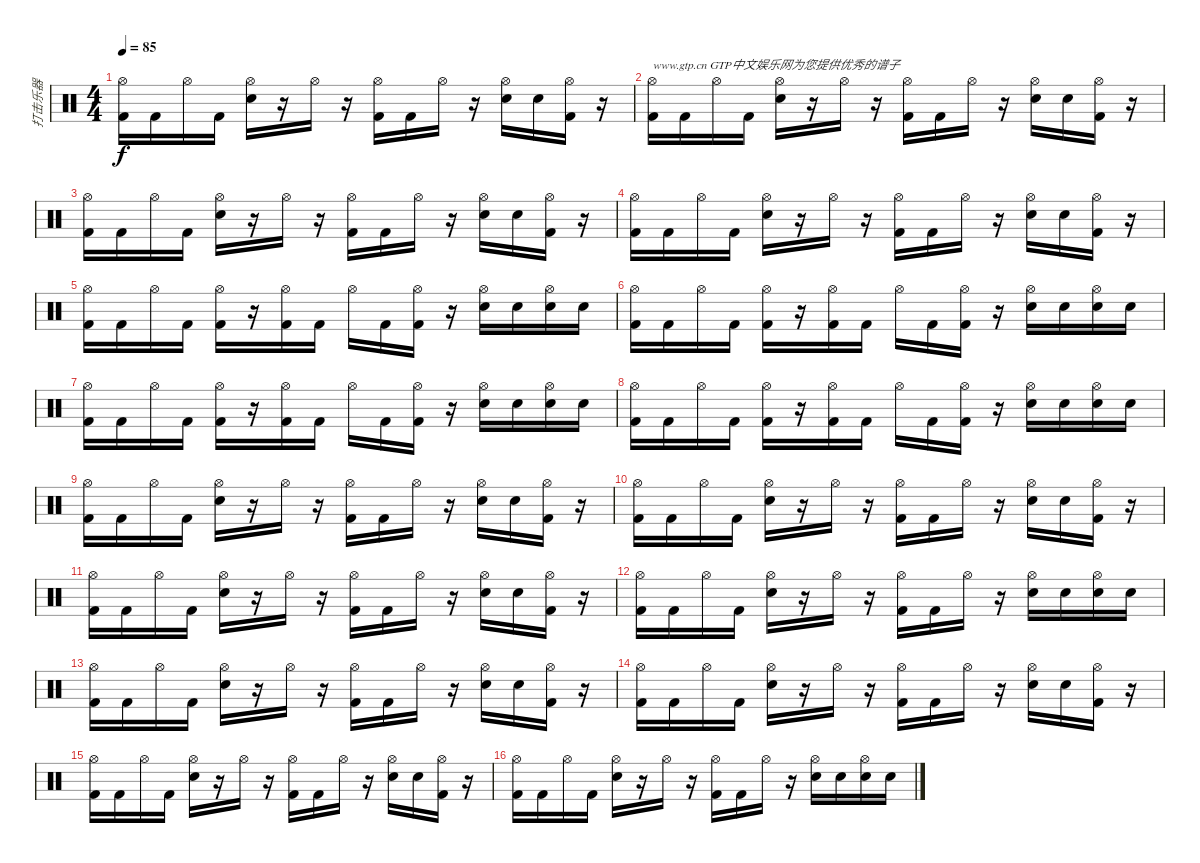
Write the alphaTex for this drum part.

\track ("打击乐器" "打击乐器") {instrument percussion}
\staff {score}
\articulation defaults
\ts (4 4)
\tempo 85
\clef neutral
\ks c
("Hi-Hat (open)" "Kick (hit) 2").16{dy f} "Kick (hit) 2".16 "Hi-Hat (open)".16 "Kick (hit) 2".16 ("Hi-Hat (open)" "Snare (hit) 2").16 r.16 "Hi-Hat (open)".16 r.16 ("Hi-Hat (open)" "Kick (hit) 2").16 "Kick (hit) 2".16 "Hi-Hat (open)".16 r.16 ("Hi-Hat (open)" "Snare (hit) 2").16 "Snare (hit) 2".16 ("Hi-Hat (open)" "Kick (hit) 2").16 r.16 |
("Hi-Hat (open)" "Kick (hit) 2").16{txt "www.gtp.cn GTP中文娱乐网为您提供优秀的谱子"} "Kick (hit) 2".16 "Hi-Hat (open)".16 "Kick (hit) 2".16 ("Hi-Hat (open)" "Snare (hit) 2").16 r.16 "Hi-Hat (open)".16 r.16 ("Hi-Hat (open)" "Kick (hit) 2").16 "Kick (hit) 2".16 "Hi-Hat (open)".16 r.16 ("Hi-Hat (open)" "Snare (hit) 2").16 "Snare (hit) 2".16 ("Hi-Hat (open)" "Kick (hit) 2").16 r.16 |
("Hi-Hat (open)" "Kick (hit) 2").16 "Kick (hit) 2".16 "Hi-Hat (open)".16 "Kick (hit) 2".16 ("Hi-Hat (open)" "Snare (hit) 2").16 r.16 "Hi-Hat (open)".16 r.16 ("Hi-Hat (open)" "Kick (hit) 2").16 "Kick (hit) 2".16 "Hi-Hat (open)".16 r.16 ("Hi-Hat (open)" "Snare (hit) 2").16 "Snare (hit) 2".16 ("Hi-Hat (open)" "Kick (hit) 2").16 r.16 |
("Hi-Hat (open)" "Kick (hit) 2").16 "Kick (hit) 2".16 "Hi-Hat (open)".16 "Kick (hit) 2".16 ("Hi-Hat (open)" "Snare (hit) 2").16 r.16 "Hi-Hat (open)".16 r.16 ("Hi-Hat (open)" "Kick (hit) 2").16 "Kick (hit) 2".16 "Hi-Hat (open)".16 r.16 ("Hi-Hat (open)" "Snare (hit) 2").16 "Snare (hit) 2".16 ("Hi-Hat (open)" "Kick (hit) 2").16 r.16 |
("Hi-Hat (open)" "Kick (hit) 2").16 "Kick (hit) 2".16 "Hi-Hat (open)".16 "Kick (hit) 2".16 ("Hi-Hat (open)" "Kick (hit) 2").16 r.16 ("Hi-Hat (open)" "Kick (hit) 2").16 "Kick (hit) 2".16 "Hi-Hat (open)".16 "Kick (hit) 2".16 ("Hi-Hat (open)" "Kick (hit) 2").16 r.16 ("Hi-Hat (open)" "Snare (hit) 2").16 "Snare (hit) 2".16 ("Hi-Hat (open)" "Snare (hit) 2").16 "Snare (hit) 2".16 |
("Hi-Hat (open)" "Kick (hit) 2").16 "Kick (hit) 2".16 "Hi-Hat (open)".16 "Kick (hit) 2".16 ("Hi-Hat (open)" "Kick (hit) 2").16 r.16 ("Hi-Hat (open)" "Kick (hit) 2").16 "Kick (hit) 2".16 "Hi-Hat (open)".16 "Kick (hit) 2".16 ("Hi-Hat (open)" "Kick (hit) 2").16 r.16 ("Hi-Hat (open)" "Snare (hit) 2").16 "Snare (hit) 2".16 ("Hi-Hat (open)" "Snare (hit) 2").16 "Snare (hit) 2".16 |
("Hi-Hat (open)" "Kick (hit) 2").16 "Kick (hit) 2".16 "Hi-Hat (open)".16 "Kick (hit) 2".16 ("Hi-Hat (open)" "Kick (hit) 2").16 r.16 ("Hi-Hat (open)" "Kick (hit) 2").16 "Kick (hit) 2".16 "Hi-Hat (open)".16 "Kick (hit) 2".16 ("Hi-Hat (open)" "Kick (hit) 2").16 r.16 ("Hi-Hat (open)" "Snare (hit) 2").16 "Snare (hit) 2".16 ("Hi-Hat (open)" "Snare (hit) 2").16 "Snare (hit) 2".16 |
("Hi-Hat (open)" "Kick (hit) 2").16 "Kick (hit) 2".16 "Hi-Hat (open)".16 "Kick (hit) 2".16 ("Hi-Hat (open)" "Kick (hit) 2").16 r.16 ("Hi-Hat (open)" "Kick (hit) 2").16 "Kick (hit) 2".16 "Hi-Hat (open)".16 "Kick (hit) 2".16 ("Hi-Hat (open)" "Kick (hit) 2").16 r.16 ("Hi-Hat (open)" "Snare (hit) 2").16 "Snare (hit) 2".16 ("Hi-Hat (open)" "Snare (hit) 2").16 "Snare (hit) 2".16 |
("Hi-Hat (open)" "Kick (hit) 2").16 "Kick (hit) 2".16 "Hi-Hat (open)".16 "Kick (hit) 2".16 ("Hi-Hat (open)" "Snare (hit) 2").16 r.16 "Hi-Hat (open)".16 r.16 ("Hi-Hat (open)" "Kick (hit) 2").16 "Kick (hit) 2".16 "Hi-Hat (open)".16 r.16 ("Hi-Hat (open)" "Snare (hit) 2").16 "Snare (hit) 2".16 ("Hi-Hat (open)" "Kick (hit) 2").16 r.16 |
("Hi-Hat (open)" "Kick (hit) 2").16 "Kick (hit) 2".16 "Hi-Hat (open)".16 "Kick (hit) 2".16 ("Hi-Hat (open)" "Snare (hit) 2").16 r.16 "Hi-Hat (open)".16 r.16 ("Hi-Hat (open)" "Kick (hit) 2").16 "Kick (hit) 2".16 "Hi-Hat (open)".16 r.16 ("Hi-Hat (open)" "Snare (hit) 2").16 "Snare (hit) 2".16 ("Hi-Hat (open)" "Kick (hit) 2").16 r.16 |
("Hi-Hat (open)" "Kick (hit) 2").16 "Kick (hit) 2".16 "Hi-Hat (open)".16 "Kick (hit) 2".16 ("Hi-Hat (open)" "Snare (hit) 2").16 r.16 "Hi-Hat (open)".16 r.16 ("Hi-Hat (open)" "Kick (hit) 2").16 "Kick (hit) 2".16 "Hi-Hat (open)".16 r.16 ("Hi-Hat (open)" "Snare (hit) 2").16 "Snare (hit) 2".16 ("Hi-Hat (open)" "Kick (hit) 2").16 r.16 |
("Hi-Hat (open)" "Kick (hit) 2").16 "Kick (hit) 2".16 "Hi-Hat (open)".16 "Kick (hit) 2".16 ("Hi-Hat (open)" "Snare (hit) 2").16 r.16 "Hi-Hat (open)".16 r.16 ("Hi-Hat (open)" "Kick (hit) 2").16 "Kick (hit) 2".16 "Hi-Hat (open)".16 r.16 ("Hi-Hat (open)" "Snare (hit) 2").16 "Snare (hit) 2".16 ("Hi-Hat (open)" "Snare (hit) 2").16 "Snare (hit) 2".16 |
("Hi-Hat (open)" "Kick (hit) 2").16 "Kick (hit) 2".16 "Hi-Hat (open)".16 "Kick (hit) 2".16 ("Hi-Hat (open)" "Snare (hit) 2").16 r.16 "Hi-Hat (open)".16 r.16 ("Hi-Hat (open)" "Kick (hit) 2").16 "Kick (hit) 2".16 "Hi-Hat (open)".16 r.16 ("Hi-Hat (open)" "Snare (hit) 2").16 "Snare (hit) 2".16 ("Hi-Hat (open)" "Kick (hit) 2").16 r.16 |
("Hi-Hat (open)" "Kick (hit) 2").16 "Kick (hit) 2".16 "Hi-Hat (open)".16 "Kick (hit) 2".16 ("Hi-Hat (open)" "Snare (hit) 2").16 r.16 "Hi-Hat (open)".16 r.16 ("Hi-Hat (open)" "Kick (hit) 2").16 "Kick (hit) 2".16 "Hi-Hat (open)".16 r.16 ("Hi-Hat (open)" "Snare (hit) 2").16 "Snare (hit) 2".16 ("Hi-Hat (open)" "Kick (hit) 2").16 r.16 |
("Hi-Hat (open)" "Kick (hit) 2").16 "Kick (hit) 2".16 "Hi-Hat (open)".16 "Kick (hit) 2".16 ("Hi-Hat (open)" "Snare (hit) 2").16 r.16 "Hi-Hat (open)".16 r.16 ("Hi-Hat (open)" "Kick (hit) 2").16 "Kick (hit) 2".16 "Hi-Hat (open)".16 r.16 ("Hi-Hat (open)" "Snare (hit) 2").16 "Snare (hit) 2".16 ("Hi-Hat (open)" "Kick (hit) 2").16 r.16 |
("Hi-Hat (open)" "Kick (hit) 2").16 "Kick (hit) 2".16 "Hi-Hat (open)".16 "Kick (hit) 2".16 ("Hi-Hat (open)" "Snare (hit) 2").16 r.16 "Hi-Hat (open)".16 r.16 ("Hi-Hat (open)" "Kick (hit) 2").16 "Kick (hit) 2".16 "Hi-Hat (open)".16 r.16 ("Hi-Hat (open)" "Snare (hit) 2").16 "Snare (hit) 2".16 ("Hi-Hat (open)" "Snare (hit) 2").16 "Snare (hit) 2".16
